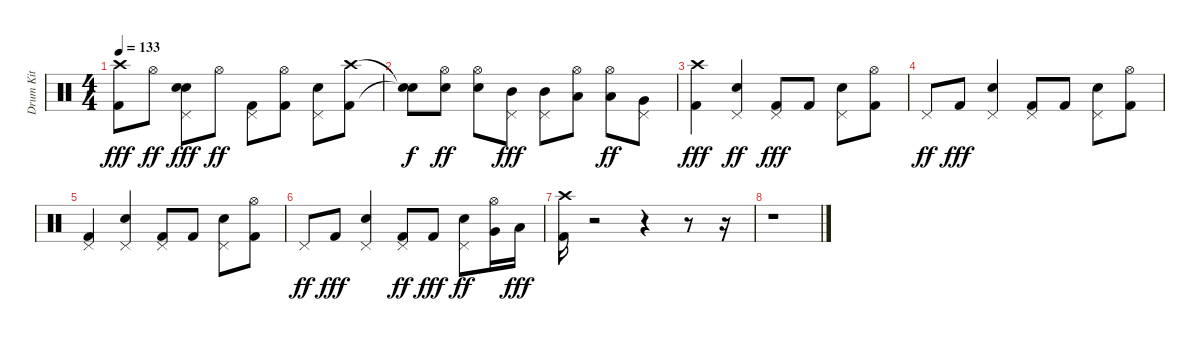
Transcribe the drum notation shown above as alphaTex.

\track ("Drum Kit" "Drum Kit") {instrument percussion}
\staff {score}
\articulation defaults
\ts (4 4)
\tempo 133
\clef neutral
\ks c
("Crash high (hit)" "Kick (hit) 2").8{dy fff} "Hi-Hat (open)".8{dy ff} ("Pedal Hi-Hat (hit)" "Electric Snare (hit)" "Electric Snare (hit)").8{dy fff} "Hi-Hat (open)".8{dy ff} ("Kick (hit) 2" "Pedal Hi-Hat (hit)").8 ("Kick (hit) 2" "Hi-Hat (open)").8 ("Electric Snare (hit)" "Pedal Hi-Hat (hit)").8 ("Kick (hit) 2" "Crash high (hit)").8 |
("Snare (hit)"{t} "Snare (hit)"{t}).8{dy f} ("Electric Snare (hit)" "Hi-Hat (open)").8{dy ff} ("Electric Snare (hit)" "Hi-Hat (open)").8 ("Pedal Hi-Hat (hit)" "Mid Tom (hit)").8{dy fff} ("Pedal Hi-Hat (hit)" "Mid Tom (hit)").8 ("Hi-Hat (open)" "Low Tom (hit)").8 ("Low Tom (hit)" "Hi-Hat (open)").8{dy ff} ("Very Low Tom (hit)" "Pedal Hi-Hat (hit)").8 |
("Crash high (hit)" "Kick (hit) 2").4{dy fff} ("Electric Snare (hit)" "Pedal Hi-Hat (hit)").4{dy ff} ("Pedal Hi-Hat (hit)" "Kick (hit) 2").8{dy fff} "Kick (hit) 2".8 ("Pedal Hi-Hat (hit)" "Electric Snare (hit)").8 ("Hi-Hat (open)" "Kick (hit) 2").8 |
"Pedal Hi-Hat (hit)".8{dy ff} "Kick (hit) 2".8{dy fff} ("Pedal Hi-Hat (hit)" "Electric Snare (hit)").4 ("Pedal Hi-Hat (hit)" "Kick (hit) 2").8 "Kick (hit) 2".8 ("Pedal Hi-Hat (hit)" "Electric Snare (hit)").8 ("Hi-Hat (open)" "Kick (hit) 2").8 |
("Pedal Hi-Hat (hit)" "Kick (hit) 2").4 ("Pedal Hi-Hat (hit)" "Electric Snare (hit)").4 ("Pedal Hi-Hat (hit)" "Kick (hit) 2").8 "Kick (hit) 2".8 ("Pedal Hi-Hat (hit)" "Electric Snare (hit)").8 ("Hi-Hat (open)" "Kick (hit) 2").8 |
"Pedal Hi-Hat (hit)".8{dy ff} "Kick (hit) 2".8{dy fff} ("Pedal Hi-Hat (hit)" "Electric Snare (hit)").4 ("Kick (hit) 2" "Pedal Hi-Hat (hit)").8{dy ff} "Kick (hit) 2".8{dy fff} ("Electric Snare (hit)" "Pedal Hi-Hat (hit)").8{dy ff} ("Very Low Tom (hit)" "Hi-Hat (open)").16 "Low Floor Tom (hit)".16{dy fff} |
("Crash high (hit)" "Kick (hit) 2").16 r.2 r.4 r.8 r.16 |
r.1
